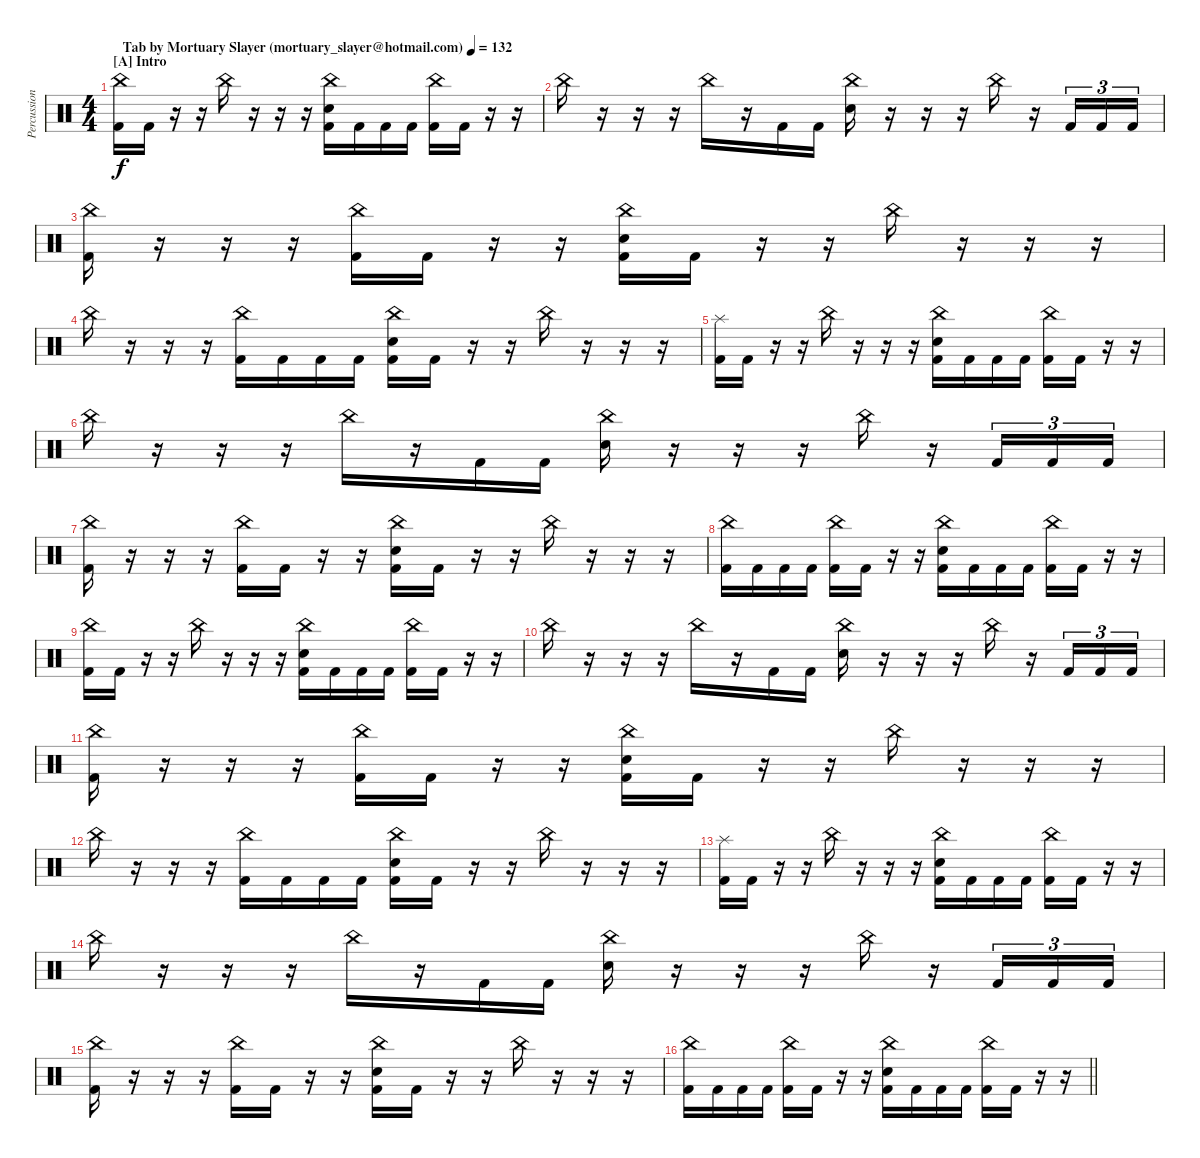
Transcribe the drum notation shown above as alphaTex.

\track ("Percussions" "Percussion") {instrument percussion}
\staff {score}
\articulation defaults
\ts (4 4)
\section ("" "[A] Intro")
\tempo (132 "Tab by Mortuary Slayer (mortuary_slayer@hotmail.com)")
\clef neutral
\ks c
("China (hit)" "Kick (hit) 2").16{dy f} "Kick (hit) 2".16 r.16 r.16 "China (hit)".16 r.16 r.16 r.16 ("China (hit)" "Electric Snare (hit)" "Kick (hit) 2").16 "Kick (hit) 2".16 "Kick (hit) 2".16 "Kick (hit) 2".16 ("China (hit)" "Kick (hit) 2").16 "Kick (hit) 2".16 r.16 r.16 |
"China (hit)".16 r.16 r.16 r.16 "China (hit)".16 r.16 "Kick (hit) 2".16 "Kick (hit) 2".16 ("China (hit)" "Electric Snare (hit)").16 r.16 r.16 r.16 "China (hit)".16 r.16 "Kick (hit) 2".16{tu (3 2)} "Kick (hit) 2".16{tu (3 2)} "Kick (hit) 2".16{tu (3 2)} |
("China (hit)" "Kick (hit) 2").16 r.16 r.16 r.16 ("China (hit)" "Kick (hit) 2").16 "Kick (hit) 2".16 r.16 r.16 ("China (hit)" "Electric Snare (hit)" "Kick (hit) 2").16 "Kick (hit) 2".16 r.16 r.16 "China (hit)".16 r.16 r.16 r.16 |
"China (hit)".16 r.16 r.16 r.16 ("China (hit)" "Kick (hit) 2").16 "Kick (hit) 2".16 "Kick (hit) 2".16 "Kick (hit) 2".16 ("China (hit)" "Electric Snare (hit)" "Kick (hit) 2").16 "Kick (hit) 2".16 r.16 r.16 "China (hit)".16 r.16 r.16 r.16 |
("Splash (hit)" "Kick (hit) 2").16 "Kick (hit) 2".16 r.16 r.16 "China (hit)".16 r.16 r.16 r.16 ("China (hit)" "Electric Snare (hit)" "Kick (hit) 2").16 "Kick (hit) 2".16 "Kick (hit) 2".16 "Kick (hit) 2".16 ("China (hit)" "Kick (hit) 2").16 "Kick (hit) 2".16 r.16 r.16 |
"China (hit)".16 r.16 r.16 r.16 "China (hit)".16 r.16 "Kick (hit) 2".16 "Kick (hit) 2".16 ("China (hit)" "Electric Snare (hit)").16 r.16 r.16 r.16 "China (hit)".16 r.16 "Kick (hit) 2".16{tu (3 2)} "Kick (hit) 2".16{tu (3 2)} "Kick (hit) 2".16{tu (3 2)} |
("China (hit)" "Kick (hit) 2").16 r.16 r.16 r.16 ("China (hit)" "Kick (hit) 2").16 "Kick (hit) 2".16 r.16 r.16 ("China (hit)" "Electric Snare (hit)" "Kick (hit) 2").16 "Kick (hit) 2".16 r.16 r.16 "China (hit)".16 r.16 r.16 r.16 |
("China (hit)" "Kick (hit) 2").16 "Kick (hit) 2".16 "Kick (hit) 2".16 "Kick (hit) 2".16 ("China (hit)" "Kick (hit) 2").16 "Kick (hit) 2".16 r.16 r.16 ("China (hit)" "Electric Snare (hit)" "Kick (hit) 2").16 "Kick (hit) 2".16 "Kick (hit) 2".16 "Kick (hit) 2".16 ("China (hit)" "Kick (hit) 2").16 "Kick (hit) 2".16 r.16 r.16 |
("China (hit)" "Kick (hit) 2").16 "Kick (hit) 2".16 r.16 r.16 "China (hit)".16 r.16 r.16 r.16 ("China (hit)" "Electric Snare (hit)" "Kick (hit) 2").16 "Kick (hit) 2".16 "Kick (hit) 2".16 "Kick (hit) 2".16 ("China (hit)" "Kick (hit) 2").16 "Kick (hit) 2".16 r.16 r.16 |
"China (hit)".16 r.16 r.16 r.16 "China (hit)".16 r.16 "Kick (hit) 2".16 "Kick (hit) 2".16 ("China (hit)" "Electric Snare (hit)").16 r.16 r.16 r.16 "China (hit)".16 r.16 "Kick (hit) 2".16{tu (3 2)} "Kick (hit) 2".16{tu (3 2)} "Kick (hit) 2".16{tu (3 2)} |
("China (hit)" "Kick (hit) 2").16 r.16 r.16 r.16 ("China (hit)" "Kick (hit) 2").16 "Kick (hit) 2".16 r.16 r.16 ("China (hit)" "Electric Snare (hit)" "Kick (hit) 2").16 "Kick (hit) 2".16 r.16 r.16 "China (hit)".16 r.16 r.16 r.16 |
"China (hit)".16 r.16 r.16 r.16 ("China (hit)" "Kick (hit) 2").16 "Kick (hit) 2".16 "Kick (hit) 2".16 "Kick (hit) 2".16 ("China (hit)" "Electric Snare (hit)" "Kick (hit) 2").16 "Kick (hit) 2".16 r.16 r.16 "China (hit)".16 r.16 r.16 r.16 |
("Splash (hit)" "Kick (hit) 2").16 "Kick (hit) 2".16 r.16 r.16 "China (hit)".16 r.16 r.16 r.16 ("China (hit)" "Electric Snare (hit)" "Kick (hit) 2").16 "Kick (hit) 2".16 "Kick (hit) 2".16 "Kick (hit) 2".16 ("China (hit)" "Kick (hit) 2").16 "Kick (hit) 2".16 r.16 r.16 |
"China (hit)".16 r.16 r.16 r.16 "China (hit)".16 r.16 "Kick (hit) 2".16 "Kick (hit) 2".16 ("China (hit)" "Electric Snare (hit)").16 r.16 r.16 r.16 "China (hit)".16 r.16 "Kick (hit) 2".16{tu (3 2)} "Kick (hit) 2".16{tu (3 2)} "Kick (hit) 2".16{tu (3 2)} |
("China (hit)" "Kick (hit) 2").16 r.16 r.16 r.16 ("China (hit)" "Kick (hit) 2").16 "Kick (hit) 2".16 r.16 r.16 ("China (hit)" "Electric Snare (hit)" "Kick (hit) 2").16 "Kick (hit) 2".16 r.16 r.16 "China (hit)".16 r.16 r.16 r.16 |
\barLineRight lightlight
("China (hit)" "Kick (hit) 2").16 "Kick (hit) 2".16 "Kick (hit) 2".16 "Kick (hit) 2".16 ("China (hit)" "Kick (hit) 2").16 "Kick (hit) 2".16 r.16 r.16 ("China (hit)" "Electric Snare (hit)" "Kick (hit) 2").16 "Kick (hit) 2".16 "Kick (hit) 2".16 "Kick (hit) 2".16 ("China (hit)" "Kick (hit) 2").16 "Kick (hit) 2".16 r.16 r.16
